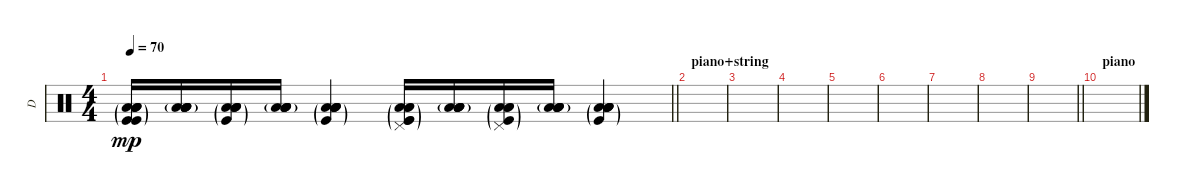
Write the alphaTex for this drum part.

\track ("D" "D") {instrument percussion}
\staff {score}
\articulation defaults
\ts (4 4)
\tempo 70
\clef neutral
\barLineRight lightlight
\ks c
("Low Floor Tom (hit)"{g} "Low Floor Tom (hit)"{g} "Low Floor Tom (hit)"{g} "Low Floor Tom (hit)"{g} "Kick (hit)"{g} "Kick (hit)"{g}).16{dy mp} ("Low Floor Tom (hit)"{g} "Low Floor Tom (hit)"{g} "Low Floor Tom (hit)"{g} "Low Floor Tom (hit)"{g} "Low Floor Tom (hit)"{g}).16 ("Low Floor Tom (hit)"{g} "Low Floor Tom (hit)"{g} "Low Floor Tom (hit)"{g} "Low Floor Tom (hit)"{g} "Kick (hit)"{g}).16 ("Low Floor Tom (hit)"{g} "Low Floor Tom (hit)"{g} "Low Floor Tom (hit)"{g} "Low Floor Tom (hit)"{g} "Low Floor Tom (hit)"{g}).16 ("Low Floor Tom (hit)"{g} "Low Floor Tom (hit)"{g} "Low Floor Tom (hit)"{g} "Low Floor Tom (hit)"{g} "Low Floor Tom (hit)"{g} "Kick (hit)"{g}).4 ("Pedal Hi-Hat (hit)"{g} "Low Floor Tom (hit)"{g} "Low Floor Tom (hit)"{g} "Low Floor Tom (hit)"{g} "Kick (hit)"{g} "Kick (hit)"{g}).16 ("Low Floor Tom (hit)"{g} "Low Floor Tom (hit)"{g} "Low Floor Tom (hit)"{g} "Low Floor Tom (hit)"{g} "Low Floor Tom (hit)"{g}).16 ("Pedal Hi-Hat (hit)"{g} "Low Floor Tom (hit)"{g} "Low Floor Tom (hit)"{g} "Low Floor Tom (hit)"{g} "Kick (hit)"{g}).16 ("Low Floor Tom (hit)"{g} "Low Floor Tom (hit)"{g} "Low Floor Tom (hit)"{g} "Low Floor Tom (hit)"{g} "Low Floor Tom (hit)"{g}).16 ("Low Floor Tom (hit)"{g} "Low Floor Tom (hit)"{g} "Low Floor Tom (hit)"{g} "Low Floor Tom (hit)"{g} "Low Floor Tom (hit)"{g} "Kick (hit)"{g}).4 |
\section ("" "piano+string")
|
|
|
|
|
|
|
\barLineRight lightlight
|
\section ("" "piano")
